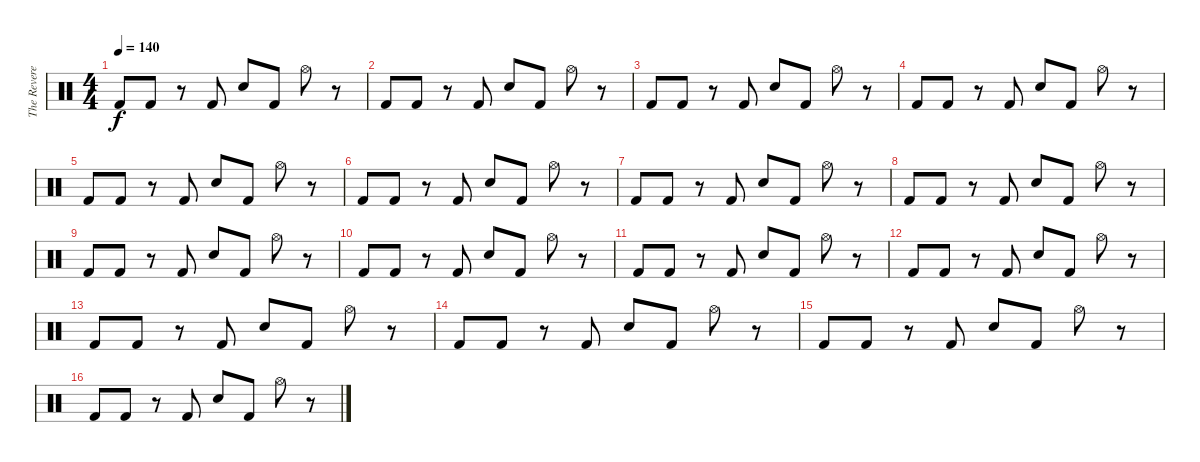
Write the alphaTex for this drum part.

\track ("The Reverend" "The Revere") {instrument percussion}
\staff {score}
\articulation defaults
\ts (4 4)
\tempo 140
\clef neutral
\ks c "Kick (hit) 2".8{dy f} "Kick (hit) 2".8
r.8 "Kick (hit) 2".8 "Snare (hit) 2".8 "Kick (hit) 2".8 "Hi-Hat (open)".8 r.8 |
"Kick (hit) 2".8 "Kick (hit) 2".8 r.8 "Kick (hit) 2".8 "Snare (hit) 2".8 "Kick (hit) 2".8 "Hi-Hat (open)".8 r.8 |
"Kick (hit) 2".8 "Kick (hit) 2".8 r.8 "Kick (hit) 2".8 "Snare (hit) 2".8 "Kick (hit) 2".8 "Hi-Hat (open)".8 r.8 |
"Kick (hit) 2".8 "Kick (hit) 2".8 r.8 "Kick (hit) 2".8 "Snare (hit) 2".8 "Kick (hit) 2".8 "Hi-Hat (open)".8 r.8 |
"Kick (hit) 2".8 "Kick (hit) 2".8 r.8 "Kick (hit) 2".8 "Snare (hit) 2".8 "Kick (hit) 2".8 "Hi-Hat (open)".8 r.8 |
"Kick (hit) 2".8 "Kick (hit) 2".8 r.8 "Kick (hit) 2".8 "Snare (hit) 2".8 "Kick (hit) 2".8 "Hi-Hat (open)".8 r.8 |
"Kick (hit) 2".8 "Kick (hit) 2".8 r.8 "Kick (hit) 2".8 "Snare (hit) 2".8 "Kick (hit) 2".8 "Hi-Hat (open)".8 r.8 |
"Kick (hit) 2".8 "Kick (hit) 2".8 r.8 "Kick (hit) 2".8 "Snare (hit) 2".8 "Kick (hit) 2".8 "Hi-Hat (open)".8 r.8 |
"Kick (hit) 2".8{volume 14} "Kick (hit) 2".8 r.8 "Kick (hit) 2".8 "Snare (hit) 2".8 "Kick (hit) 2".8 "Hi-Hat (open)".8 r.8 |
"Kick (hit) 2".8{volume 12} "Kick (hit) 2".8 r.8 "Kick (hit) 2".8 "Snare (hit) 2".8 "Kick (hit) 2".8 "Hi-Hat (open)".8 r.8 |
"Kick (hit) 2".8{volume 10} "Kick (hit) 2".8 r.8 "Kick (hit) 2".8 "Snare (hit) 2".8 "Kick (hit) 2".8 "Hi-Hat (open)".8 r.8 |
"Kick (hit) 2".8{volume 8} "Kick (hit) 2".8 r.8 "Kick (hit) 2".8 "Snare (hit) 2".8 "Kick (hit) 2".8 "Hi-Hat (open)".8 r.8 |
"Kick (hit) 2".8{volume 6} "Kick (hit) 2".8 r.8 "Kick (hit) 2".8 "Snare (hit) 2".8 "Kick (hit) 2".8 "Hi-Hat (open)".8 r.8 |
"Kick (hit) 2".8{volume 4} "Kick (hit) 2".8 r.8 "Kick (hit) 2".8 "Snare (hit) 2".8 "Kick (hit) 2".8 "Hi-Hat (open)".8 r.8 |
"Kick (hit) 2".8{volume 2} "Kick (hit) 2".8 r.8 "Kick (hit) 2".8 "Snare (hit) 2".8 "Kick (hit) 2".8 "Hi-Hat (open)".8 r.8 |
"Kick (hit) 2".8{volume 0} "Kick (hit) 2".8 r.8 "Kick (hit) 2".8 "Snare (hit) 2".8 "Kick (hit) 2".8 "Hi-Hat (open)".8 r.8
